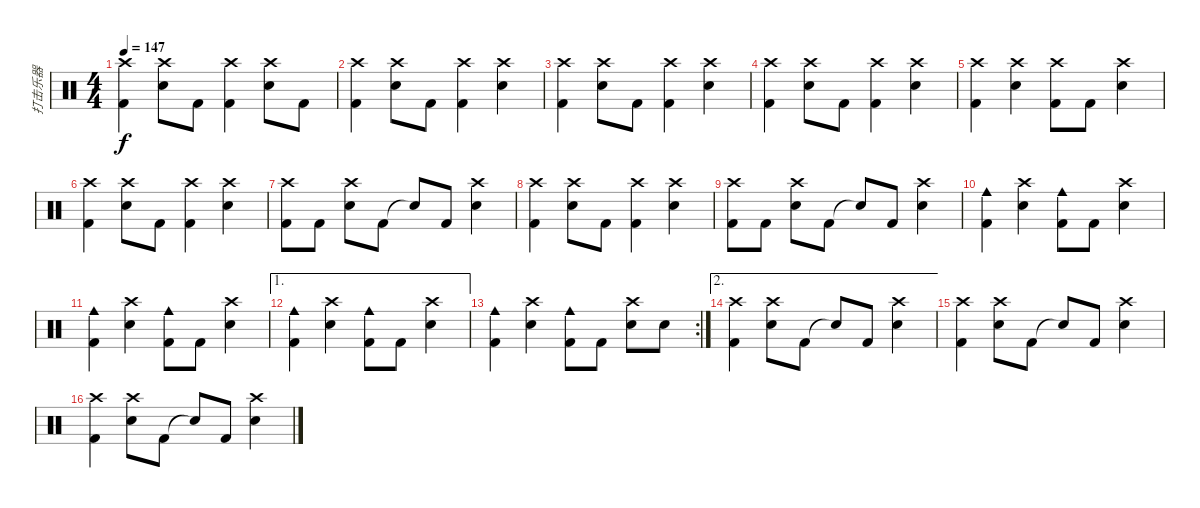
\track ("打击乐器" "打击乐器") {instrument percussion}
\staff {score}
\articulation defaults
\ts (4 4)
\tempo 147
\clef neutral
\ks c
("Crash high (hit)" "Kick (hit) 2").4{dy f} ("Crash high (hit)" "Snare (hit) 2").8 "Kick (hit) 2".8 ("Crash high (hit)" "Kick (hit) 2").4 ("Crash high (hit)" "Snare (hit) 2").8 "Kick (hit) 2".8 |
("Crash high (hit)" "Kick (hit) 2").4 ("Crash high (hit)" "Snare (hit) 2").8 "Kick (hit) 2".8 ("Crash high (hit)" "Kick (hit) 2").4 ("Crash high (hit)" "Snare (hit) 2").4 |
("Crash high (hit)" "Kick (hit) 2").4 ("Crash high (hit)" "Snare (hit) 2").8 "Kick (hit) 2".8 ("Crash high (hit)" "Kick (hit) 2").4 ("Crash high (hit)" "Snare (hit) 2").4 |
("Crash high (hit)" "Kick (hit) 2").4 ("Crash high (hit)" "Snare (hit) 2").8 "Kick (hit) 2".8 ("Crash high (hit)" "Kick (hit) 2").4 ("Crash high (hit)" "Snare (hit) 2").4 |
("Crash high (hit)" "Kick (hit) 2").4 ("Crash high (hit)" "Snare (hit) 2").4 ("Crash high (hit)" "Kick (hit) 2").8 "Kick (hit) 2".8 ("Crash high (hit)" "Snare (hit) 2").4 |
("Crash high (hit)" "Kick (hit) 2").4 ("Crash high (hit)" "Snare (hit) 2").8 "Kick (hit) 2".8 ("Crash high (hit)" "Kick (hit) 2").4 ("Crash high (hit)" "Snare (hit) 2").4 |
("Crash high (hit)" "Kick (hit) 2").8 "Kick (hit) 2".8 ("Crash high (hit)" "Snare (hit) 2").8 "Kick (hit) 2".8 "Snare (hit)"{t}.8 "Kick (hit) 2".8 ("Crash high (hit)" "Snare (hit) 2").4 |
("Crash high (hit)" "Kick (hit) 2").4 ("Crash high (hit)" "Snare (hit) 2").8 "Kick (hit) 2".8 ("Crash high (hit)" "Kick (hit) 2").4 ("Crash high (hit)" "Snare (hit) 2").4 |
("Crash high (hit)" "Kick (hit) 2").8 "Kick (hit) 2".8 ("Crash high (hit)" "Snare (hit) 2").8 "Kick (hit) 2".8 "Snare (hit)"{t}.8 "Kick (hit) 2".8 ("Crash high (hit)" "Snare (hit) 2").4 |
("Cowbell medium (hit)" "Kick (hit) 2").4 ("Crash high (hit)" "Snare (hit) 2").4 ("Cowbell medium (hit)" "Kick (hit) 2").8 "Kick (hit) 2".8 ("Crash high (hit)" "Snare (hit) 2").4 |
("Cowbell medium (hit)" "Kick (hit) 2").4 ("Crash high (hit)" "Snare (hit) 2").4 ("Cowbell medium (hit)" "Kick (hit) 2").8 "Kick (hit) 2".8 ("Crash high (hit)" "Snare (hit) 2").4 |
\ae 1
("Cowbell medium (hit)" "Kick (hit) 2").4 ("Crash high (hit)" "Snare (hit) 2").4 ("Cowbell medium (hit)" "Kick (hit) 2").8 "Kick (hit) 2".8 ("Crash high (hit)" "Snare (hit) 2").4 |
\rc 2
("Cowbell medium (hit)" "Kick (hit) 2").4 ("Crash high (hit)" "Snare (hit) 2").4 ("Cowbell medium (hit)" "Kick (hit) 2").8 "Kick (hit) 2".8 ("Crash high (hit)" "Snare (hit) 2").8 "Snare (hit) 2".8 |
\ae 2
("Crash high (hit)" "Kick (hit) 2").4 ("Crash high (hit)" "Snare (hit) 2").8 "Kick (hit) 2".8 "Snare (hit)"{t}.8 "Kick (hit) 2".8 ("Crash high (hit)" "Snare (hit) 2").4 |
("Crash high (hit)" "Kick (hit) 2").4 ("Crash high (hit)" "Snare (hit) 2").8 "Kick (hit) 2".8 "Snare (hit)"{t}.8 "Kick (hit) 2".8 ("Crash high (hit)" "Snare (hit) 2").4 |
("Crash high (hit)" "Kick (hit) 2").4 ("Crash high (hit)" "Snare (hit) 2").8 "Kick (hit) 2".8 "Snare (hit)"{t}.8 "Kick (hit) 2".8 ("Crash high (hit)" "Snare (hit) 2").4
